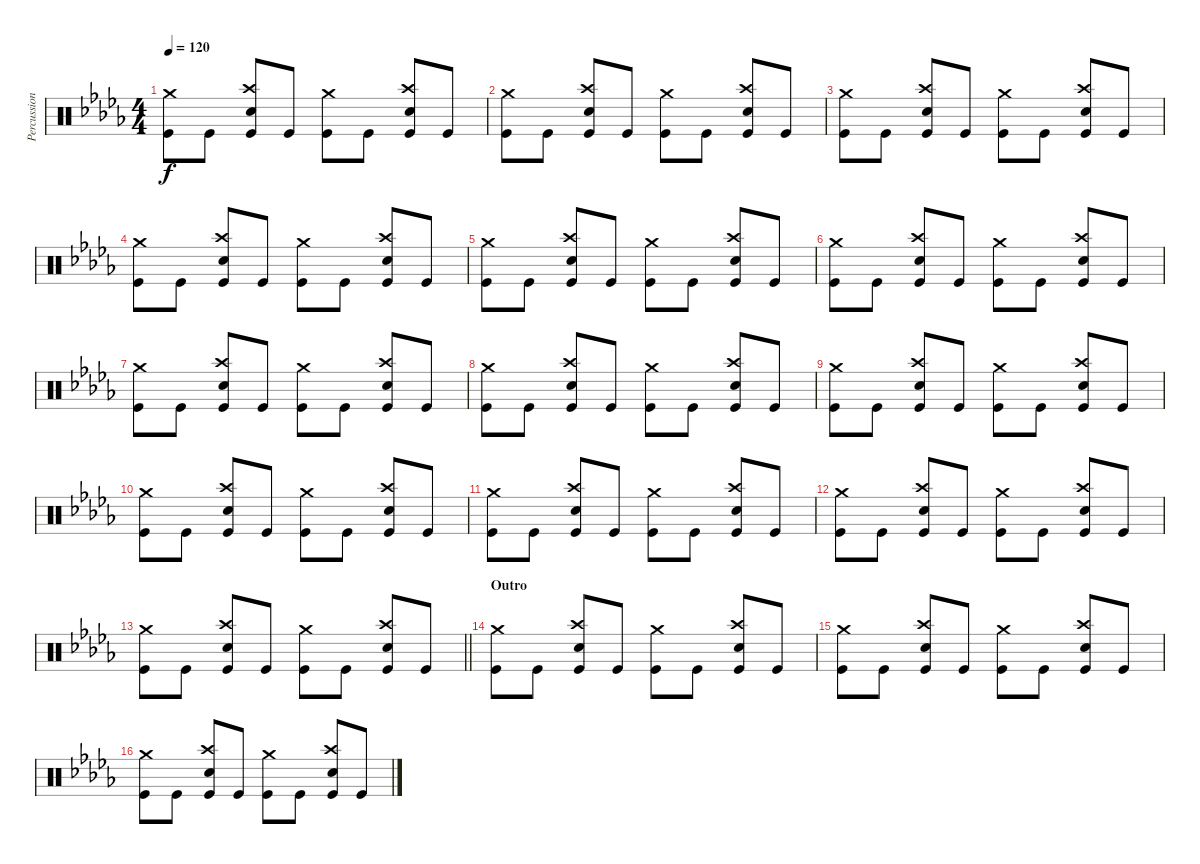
\track ("Percussion" "Percussion") {instrument percussion}
\staff {score}
\articulation defaults
\ts (4 4)
\tempo 120
\clef neutral
\ks bbminor
("Crash medium (hit)" "Kick (hit)").8{dy f} "Kick (hit)".8 ("Crash high (hit)" "Snare (hit) 2" "Kick (hit)").8 "Kick (hit)".8 ("Crash medium (hit)" "Kick (hit)").8 "Kick (hit)".8 ("Crash high (hit)" "Snare (hit) 2" "Kick (hit)").8 "Kick (hit)".8 |
("Crash medium (hit)" "Kick (hit)").8 "Kick (hit)".8 ("Crash high (hit)" "Snare (hit) 2" "Kick (hit)").8 "Kick (hit)".8 ("Crash medium (hit)" "Kick (hit)").8 "Kick (hit)".8 ("Crash high (hit)" "Snare (hit) 2" "Kick (hit)").8 "Kick (hit)".8 |
("Crash medium (hit)" "Kick (hit)").8 "Kick (hit)".8 ("Crash high (hit)" "Snare (hit) 2" "Kick (hit)").8 "Kick (hit)".8 ("Crash medium (hit)" "Kick (hit)").8 "Kick (hit)".8 ("Crash high (hit)" "Snare (hit) 2" "Kick (hit)").8 "Kick (hit)".8 |
("Crash medium (hit)" "Kick (hit)").8 "Kick (hit)".8 ("Crash high (hit)" "Snare (hit) 2" "Kick (hit)").8 "Kick (hit)".8 ("Crash medium (hit)" "Kick (hit)").8 "Kick (hit)".8 ("Crash high (hit)" "Snare (hit) 2" "Kick (hit)").8 "Kick (hit)".8 |
("Crash medium (hit)" "Kick (hit)").8 "Kick (hit)".8 ("Crash high (hit)" "Snare (hit) 2" "Kick (hit)").8 "Kick (hit)".8 ("Crash medium (hit)" "Kick (hit)").8 "Kick (hit)".8 ("Crash high (hit)" "Snare (hit) 2" "Kick (hit)").8 "Kick (hit)".8 |
("Crash medium (hit)" "Kick (hit)").8 "Kick (hit)".8 ("Crash high (hit)" "Snare (hit) 2" "Kick (hit)").8 "Kick (hit)".8 ("Crash medium (hit)" "Kick (hit)").8 "Kick (hit)".8 ("Crash high (hit)" "Snare (hit) 2" "Kick (hit)").8 "Kick (hit)".8 |
("Crash medium (hit)" "Kick (hit)").8 "Kick (hit)".8 ("Crash high (hit)" "Snare (hit) 2" "Kick (hit)").8 "Kick (hit)".8 ("Crash medium (hit)" "Kick (hit)").8 "Kick (hit)".8 ("Crash high (hit)" "Snare (hit) 2" "Kick (hit)").8 "Kick (hit)".8 |
("Crash medium (hit)" "Kick (hit)").8 "Kick (hit)".8 ("Crash high (hit)" "Snare (hit) 2" "Kick (hit)").8 "Kick (hit)".8 ("Crash medium (hit)" "Kick (hit)").8 "Kick (hit)".8 ("Crash high (hit)" "Snare (hit) 2" "Kick (hit)").8 "Kick (hit)".8 |
("Crash medium (hit)" "Kick (hit)").8 "Kick (hit)".8 ("Crash high (hit)" "Snare (hit) 2" "Kick (hit)").8 "Kick (hit)".8 ("Crash medium (hit)" "Kick (hit)").8 "Kick (hit)".8 ("Crash high (hit)" "Snare (hit) 2" "Kick (hit)").8 "Kick (hit)".8 |
("Crash medium (hit)" "Kick (hit)").8 "Kick (hit)".8 ("Crash high (hit)" "Snare (hit) 2" "Kick (hit)").8 "Kick (hit)".8 ("Crash medium (hit)" "Kick (hit)").8 "Kick (hit)".8 ("Crash high (hit)" "Snare (hit) 2" "Kick (hit)").8 "Kick (hit)".8 |
("Crash medium (hit)" "Kick (hit)").8 "Kick (hit)".8 ("Crash high (hit)" "Snare (hit) 2" "Kick (hit)").8 "Kick (hit)".8 ("Crash medium (hit)" "Kick (hit)").8 "Kick (hit)".8 ("Crash high (hit)" "Snare (hit) 2" "Kick (hit)").8 "Kick (hit)".8 |
("Crash medium (hit)" "Kick (hit)").8 "Kick (hit)".8 ("Crash high (hit)" "Snare (hit) 2" "Kick (hit)").8 "Kick (hit)".8 ("Crash medium (hit)" "Kick (hit)").8 "Kick (hit)".8 ("Crash high (hit)" "Snare (hit) 2" "Kick (hit)").8 "Kick (hit)".8 |
\barLineRight lightlight
("Crash medium (hit)" "Kick (hit)").8 "Kick (hit)".8 ("Crash high (hit)" "Snare (hit) 2" "Kick (hit)").8 "Kick (hit)".8 ("Crash medium (hit)" "Kick (hit)").8 "Kick (hit)".8 ("Crash high (hit)" "Snare (hit) 2" "Kick (hit)").8 "Kick (hit)".8 |
\section ("" "Outro")
("Crash medium (hit)" "Kick (hit)").8{volume 0} "Kick (hit)".8 ("Crash high (hit)" "Snare (hit) 2" "Kick (hit)").8 "Kick (hit)".8 ("Crash medium (hit)" "Kick (hit)").8 "Kick (hit)".8 ("Crash high (hit)" "Snare (hit) 2" "Kick (hit)").8 "Kick (hit)".8 |
("Crash medium (hit)" "Kick (hit)").8 "Kick (hit)".8 ("Crash high (hit)" "Snare (hit) 2" "Kick (hit)").8 "Kick (hit)".8 ("Crash medium (hit)" "Kick (hit)").8 "Kick (hit)".8 ("Crash high (hit)" "Snare (hit) 2" "Kick (hit)").8 "Kick (hit)".8 |
("Crash medium (hit)" "Kick (hit)").8 "Kick (hit)".8 ("Crash high (hit)" "Snare (hit) 2" "Kick (hit)").8 "Kick (hit)".8 ("Crash medium (hit)" "Kick (hit)").8 "Kick (hit)".8 ("Crash high (hit)" "Snare (hit) 2" "Kick (hit)").8 "Kick (hit)".8
